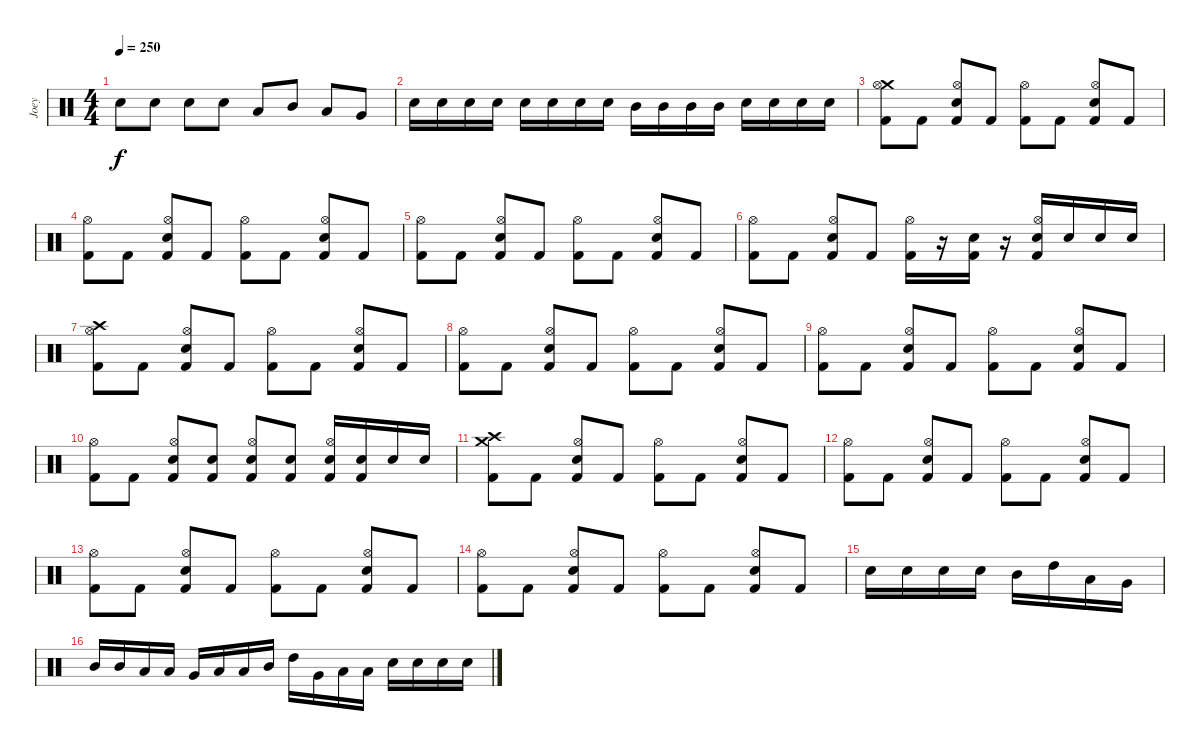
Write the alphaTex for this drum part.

\track ("Joey" "Joey") {instrument percussion}
\staff {score}
\articulation defaults
\ts (4 4)
\tempo 250
\clef neutral
\ks c "Snare (hit) 2".8{dy f} "Snare (hit) 2".8 "Snare (hit) 2".8 "Snare (hit) 2".8 "Low Floor Tom (hit)".8 "Mid Tom (hit)".8 "Low Tom (hit)".8 "Very Low Tom (hit)".8
|
"Snare (hit) 2".16 "Snare (hit) 2".16 "Snare (hit) 2".16 "Snare (hit) 2".16 "Snare (hit) 2".16 "Snare (hit) 2".16 "Snare (hit) 2".16 "Snare (hit) 2".16 "Mid Tom (hit)".16 "Mid Tom (hit)".16 "Mid Tom (hit)".16 "Mid Tom (hit)".16 "Snare (hit) 2".16 "Snare (hit) 2".16 "Snare (hit) 2".16 "Snare (hit) 2".16 |
("Crash medium (hit)" "Hi-Hat (open)" "Kick (hit) 2").8 "Kick (hit) 2".8 ("Hi-Hat (open)" "Snare (hit) 2" "Kick (hit) 2").8 "Kick (hit) 2".8 ("Hi-Hat (open)" "Kick (hit) 2").8 "Kick (hit) 2".8 ("Hi-Hat (open)" "Snare (hit) 2" "Kick (hit) 2").8 "Kick (hit) 2".8 |
("Hi-Hat (open)" "Kick (hit) 2").8 "Kick (hit) 2".8 ("Hi-Hat (open)" "Snare (hit) 2" "Kick (hit) 2").8 "Kick (hit) 2".8 ("Hi-Hat (open)" "Kick (hit) 2").8 "Kick (hit) 2".8 ("Hi-Hat (open)" "Snare (hit) 2" "Kick (hit) 2").8 "Kick (hit) 2".8 |
("Hi-Hat (open)" "Kick (hit) 2").8 "Kick (hit) 2".8 ("Hi-Hat (open)" "Snare (hit) 2" "Kick (hit) 2").8 "Kick (hit) 2".8 ("Hi-Hat (open)" "Kick (hit) 2").8 "Kick (hit) 2".8 ("Hi-Hat (open)" "Snare (hit) 2" "Kick (hit) 2").8 "Kick (hit) 2".8 |
("Hi-Hat (open)" "Kick (hit) 2").8 "Kick (hit) 2".8 ("Hi-Hat (open)" "Snare (hit) 2" "Kick (hit) 2").8 "Kick (hit) 2".8 ("Hi-Hat (open)" "Kick (hit) 2").16 r.16 ("Snare (hit) 2" "Kick (hit) 2").16 r.16 ("Hi-Hat (open)" "Snare (hit) 2" "Kick (hit) 2").16 "Snare (hit) 2".16 "Snare (hit) 2".16 "Snare (hit) 2".16 |
("Crash high (hit)" "Hi-Hat (open)" "Kick (hit) 2").8 "Kick (hit) 2".8 ("Hi-Hat (open)" "Snare (hit) 2" "Kick (hit) 2").8 "Kick (hit) 2".8 ("Hi-Hat (open)" "Kick (hit) 2").8 "Kick (hit) 2".8 ("Hi-Hat (open)" "Snare (hit) 2" "Kick (hit) 2").8 "Kick (hit) 2".8 |
("Hi-Hat (open)" "Kick (hit) 2").8 "Kick (hit) 2".8 ("Hi-Hat (open)" "Snare (hit) 2" "Kick (hit) 2").8 "Kick (hit) 2".8 ("Hi-Hat (open)" "Kick (hit) 2").8 "Kick (hit) 2".8 ("Hi-Hat (open)" "Snare (hit) 2" "Kick (hit) 2").8 "Kick (hit) 2".8 |
("Hi-Hat (open)" "Kick (hit) 2").8 "Kick (hit) 2".8 ("Hi-Hat (open)" "Snare (hit) 2" "Kick (hit) 2").8 "Kick (hit) 2".8 ("Hi-Hat (open)" "Kick (hit) 2").8 "Kick (hit) 2".8 ("Hi-Hat (open)" "Snare (hit) 2" "Kick (hit) 2").8 "Kick (hit) 2".8 |
("Hi-Hat (open)" "Kick (hit) 2").8 "Kick (hit) 2".8 ("Hi-Hat (open)" "Snare (hit) 2" "Kick (hit) 2").8 ("Snare (hit) 2" "Kick (hit) 2").8 ("Hi-Hat (open)" "Snare (hit) 2" "Kick (hit) 2").8 ("Snare (hit) 2" "Kick (hit) 2").8 ("Hi-Hat (open)" "Snare (hit) 2" "Kick (hit) 2").16 ("Snare (hit) 2" "Kick (hit) 2").16 "Snare (hit) 2".16 "Snare (hit) 2".16 |
("Crash high (hit)" "Crash medium (hit)" "Kick (hit) 2").8 "Kick (hit) 2".8 ("Hi-Hat (open)" "Snare (hit) 2" "Kick (hit) 2").8 "Kick (hit) 2".8 ("Hi-Hat (open)" "Kick (hit) 2").8 "Kick (hit) 2".8 ("Hi-Hat (open)" "Snare (hit) 2" "Kick (hit) 2").8 "Kick (hit) 2".8 |
("Hi-Hat (open)" "Kick (hit) 2").8 "Kick (hit) 2".8 ("Hi-Hat (open)" "Snare (hit) 2" "Kick (hit) 2").8 "Kick (hit) 2".8 ("Hi-Hat (open)" "Kick (hit) 2").8 "Kick (hit) 2".8 ("Hi-Hat (open)" "Snare (hit) 2" "Kick (hit) 2").8 "Kick (hit) 2".8 |
("Hi-Hat (open)" "Kick (hit) 2").8 "Kick (hit) 2".8 ("Hi-Hat (open)" "Snare (hit) 2" "Kick (hit) 2").8 "Kick (hit) 2".8 ("Hi-Hat (open)" "Kick (hit) 2").8 "Kick (hit) 2".8 ("Hi-Hat (open)" "Snare (hit) 2" "Kick (hit) 2").8 "Kick (hit) 2".8 |
("Hi-Hat (open)" "Kick (hit) 2").8 "Kick (hit) 2".8 ("Hi-Hat (open)" "Snare (hit) 2" "Kick (hit) 2").8 "Kick (hit) 2".8 ("Hi-Hat (open)" "Kick (hit) 2").8 "Kick (hit) 2".8 ("Hi-Hat (open)" "Snare (hit) 2" "Kick (hit) 2").8 "Kick (hit) 2".8 |
"Snare (hit) 2".16 "Snare (hit) 2".16 "Snare (hit) 2".16 "Snare (hit) 2".16 "Mid Tom (hit)".16 "High Tom (hit)".16 "Low Floor Tom (hit)".16 "Very Low Tom (hit)".16 |
"Mid Tom (hit)".16 "Mid Tom (hit)".16 "Low Tom (hit)".16 "Low Tom (hit)".16 "Very Low Tom (hit)".16 "Low Floor Tom (hit)".16 "Low Tom (hit)".16 "Mid Tom (hit)".16 "High Tom (hit)".16 "Very Low Tom (hit)".16 "Low Tom (hit)".16 "Low Floor Tom (hit)".16 "Snare (hit) 2".16 "Snare (hit) 2".16 "Snare (hit) 2".16 "Snare (hit) 2".16
